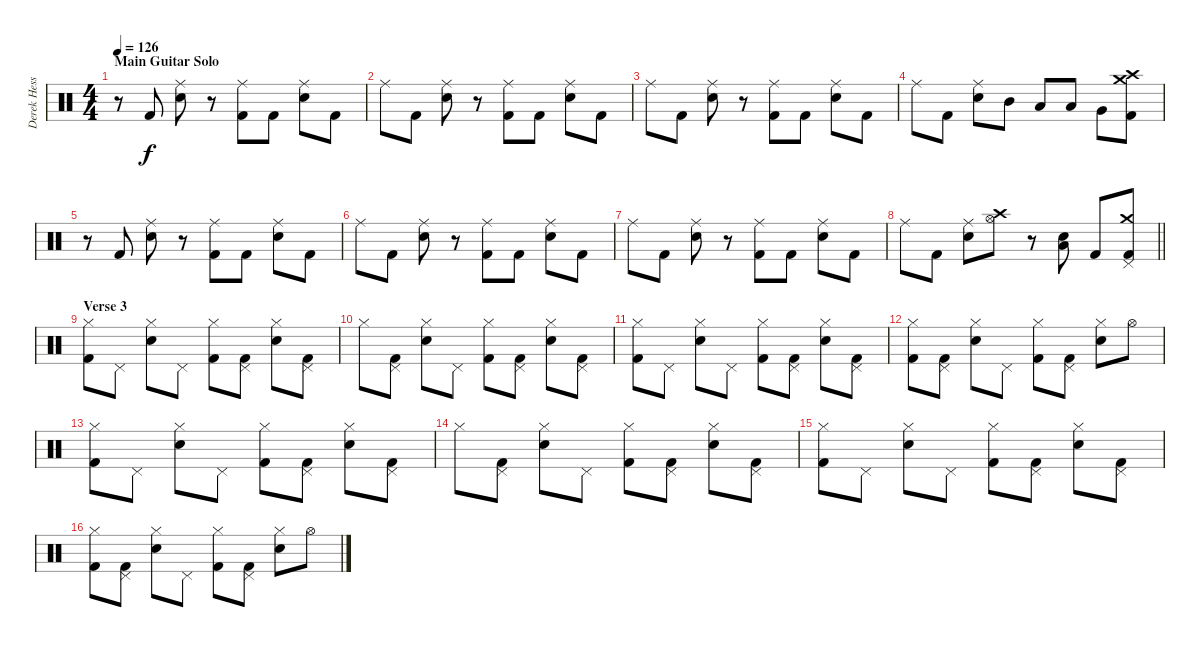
\track ("Derek Hess - Drums and Percussion" "Derek Hess") {instrument percussion}
\staff {score}
\articulation defaults
\ts (4 4)
\section ("" "Main Guitar Solo")
\tempo 126
\clef neutral
\ks c
r.8{dy f} "Kick (hit) 2".8 ("Ride (middle)" "Snare (hit) 2").8 r.8 ("Ride (middle)" "Kick (hit) 2").8 "Kick (hit) 2".8 ("Ride (middle)" "Snare (hit) 2").8 "Kick (hit) 2".8 |
"Ride (middle)".8 "Kick (hit) 2".8 ("Ride (middle)" "Snare (hit) 2").8 r.8 ("Ride (middle)" "Kick (hit) 2").8 "Kick (hit) 2".8 ("Ride (middle)" "Snare (hit) 2").8 "Kick (hit) 2".8 |
"Ride (middle)".8 "Kick (hit) 2".8 ("Ride (middle)" "Snare (hit) 2").8 r.8 ("Ride (middle)" "Kick (hit) 2").8 "Kick (hit) 2".8 ("Ride (middle)" "Snare (hit) 2").8 "Kick (hit) 2".8 |
"Ride (middle)".8 "Kick (hit) 2".8 ("Ride (middle)" "Snare (hit) 2").8 "Mid Tom (hit)".8 "Low Tom (hit)".8 "Low Tom (hit)".8 "Very Low Tom (hit)".8 ("Crash medium (hit)" "Crash high (hit)" "Kick (hit) 2").8 |
r.8 "Kick (hit) 2".8 ("Ride (middle)" "Snare (hit) 2").8 r.8 ("Ride (middle)" "Kick (hit) 2").8 "Kick (hit) 2".8 ("Ride (middle)" "Snare (hit) 2").8 "Kick (hit) 2".8 |
"Ride (middle)".8 "Kick (hit) 2".8 ("Ride (middle)" "Snare (hit) 2").8 r.8 ("Ride (middle)" "Kick (hit) 2").8 "Kick (hit) 2".8 ("Ride (middle)" "Snare (hit) 2").8 "Kick (hit) 2".8 |
"Ride (middle)".8 "Kick (hit) 2".8 ("Ride (middle)" "Snare (hit) 2").8 r.8 ("Ride (middle)" "Kick (hit) 2").8 "Kick (hit) 2".8 ("Ride (middle)" "Snare (hit) 2").8 "Kick (hit) 2".8 |
\barLineRight lightlight "Ride (middle)".8 "Kick (hit) 2".8
("Ride (middle)" "Snare (hit) 2").8 ("Crash high (hit)" "Hi-Hat (open)").8 r.8 ("Snare (hit) 2" "Low Tom (hit)").8 "Kick (hit) 2".8 ("Crash medium (hit)" "Pedal Hi-Hat (hit)" "Kick (hit) 2").8 |
\section ("" "Verse 3")
("Hi-Hat (closed)" "Kick (hit) 2").8 "Pedal Hi-Hat (hit)".8 ("Snare (hit) 2" "Hi-Hat (closed)").8 "Pedal Hi-Hat (hit)".8 ("Hi-Hat (closed)" "Kick (hit) 2").8 ("Pedal Hi-Hat (hit)" "Kick (hit) 2").8 ("Snare (hit) 2" "Hi-Hat (closed)").8 ("Pedal Hi-Hat (hit)" "Kick (hit) 2").8 |
"Hi-Hat (closed)".8 ("Pedal Hi-Hat (hit)" "Kick (hit) 2").8 ("Snare (hit) 2" "Hi-Hat (closed)").8 "Pedal Hi-Hat (hit)".8 ("Hi-Hat (closed)" "Kick (hit) 2").8 ("Pedal Hi-Hat (hit)" "Kick (hit) 2").8 ("Snare (hit) 2" "Hi-Hat (closed)").8 ("Pedal Hi-Hat (hit)" "Kick (hit) 2").8 |
("Hi-Hat (closed)" "Kick (hit) 2").8 "Pedal Hi-Hat (hit)".8 ("Snare (hit) 2" "Hi-Hat (closed)").8 "Pedal Hi-Hat (hit)".8 ("Hi-Hat (closed)" "Kick (hit) 2").8 ("Pedal Hi-Hat (hit)" "Kick (hit) 2").8 ("Snare (hit) 2" "Hi-Hat (closed)").8 ("Pedal Hi-Hat (hit)" "Kick (hit) 2").8 |
("Hi-Hat (closed)" "Kick (hit) 2").8 ("Pedal Hi-Hat (hit)" "Kick (hit) 2").8 ("Snare (hit) 2" "Hi-Hat (closed)").8 "Pedal Hi-Hat (hit)".8 ("Hi-Hat (closed)" "Kick (hit) 2").8 ("Pedal Hi-Hat (hit)" "Kick (hit) 2").8 ("Snare (hit) 2" "Hi-Hat (closed)").8 "Hi-Hat (open)".8 |
("Hi-Hat (closed)" "Kick (hit) 2").8 "Pedal Hi-Hat (hit)".8 ("Snare (hit) 2" "Hi-Hat (closed)").8 "Pedal Hi-Hat (hit)".8 ("Hi-Hat (closed)" "Kick (hit) 2").8 ("Pedal Hi-Hat (hit)" "Kick (hit) 2").8 ("Snare (hit) 2" "Hi-Hat (closed)").8 ("Pedal Hi-Hat (hit)" "Kick (hit) 2").8 |
"Hi-Hat (closed)".8 ("Pedal Hi-Hat (hit)" "Kick (hit) 2").8 ("Snare (hit) 2" "Hi-Hat (closed)").8 "Pedal Hi-Hat (hit)".8 ("Hi-Hat (closed)" "Kick (hit) 2").8 ("Pedal Hi-Hat (hit)" "Kick (hit) 2").8 ("Snare (hit) 2" "Hi-Hat (closed)").8 ("Pedal Hi-Hat (hit)" "Kick (hit) 2").8 |
("Hi-Hat (closed)" "Kick (hit) 2").8 "Pedal Hi-Hat (hit)".8 ("Snare (hit) 2" "Hi-Hat (closed)").8 "Pedal Hi-Hat (hit)".8 ("Hi-Hat (closed)" "Kick (hit) 2").8 ("Pedal Hi-Hat (hit)" "Kick (hit) 2").8 ("Snare (hit) 2" "Hi-Hat (closed)").8 ("Pedal Hi-Hat (hit)" "Kick (hit) 2").8 |
("Hi-Hat (closed)" "Kick (hit) 2").8 ("Pedal Hi-Hat (hit)" "Kick (hit) 2").8 ("Snare (hit) 2" "Hi-Hat (closed)").8 "Pedal Hi-Hat (hit)".8 ("Hi-Hat (closed)" "Kick (hit) 2").8 ("Pedal Hi-Hat (hit)" "Kick (hit) 2").8 ("Snare (hit) 2" "Hi-Hat (closed)").8 "Hi-Hat (open)".8
